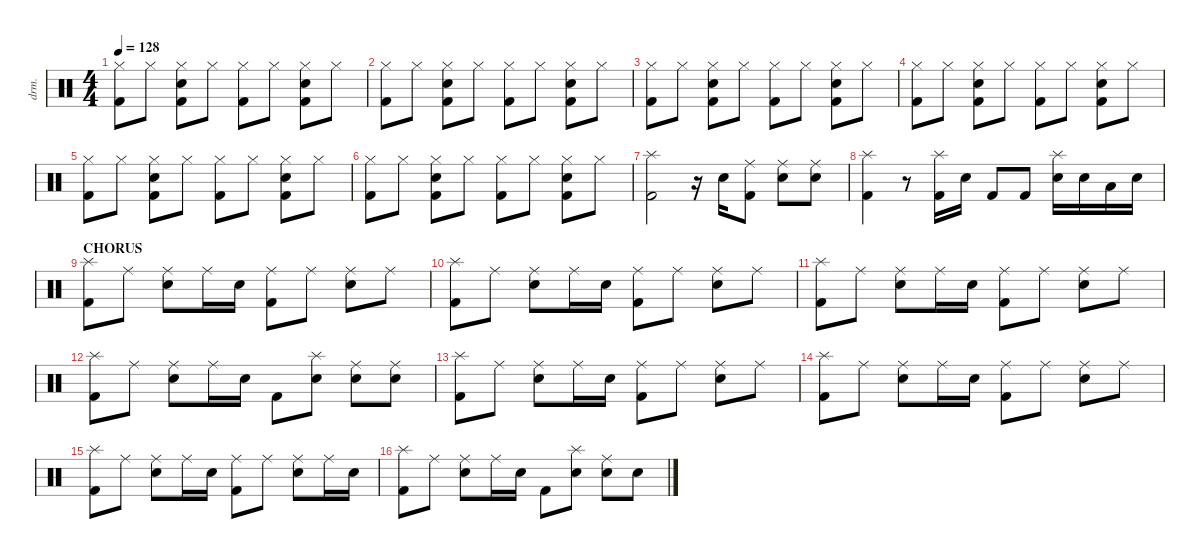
\defaultSystemsLayout 4
\hideDynamics
\bracketExtendMode nobrackets
\track ("Drumkit" "drm.") {instrument percussion}
\staff {score}
\articulation defaults
\ts (4 4)
\tempo 128
\clef neutral
\ks c
("Kick (hit) 2" "Hi-Hat (closed)").8{dy mf beam Down} "Hi-Hat (closed)".8{beam Down} ("Kick (hit) 2" "Snare (hit) 2" "Hi-Hat (closed)").8{beam Down} "Hi-Hat (closed)".8{beam Down} ("Kick (hit) 2" "Hi-Hat (closed)").8{beam Down} "Hi-Hat (closed)".8{beam Down} ("Kick (hit) 2" "Snare (hit) 2" "Hi-Hat (closed)").8{beam Down} "Hi-Hat (closed)".8{beam Down} |
("Kick (hit) 2" "Hi-Hat (closed)").8{beam Down} "Hi-Hat (closed)".8{beam Down} ("Kick (hit) 2" "Snare (hit) 2" "Hi-Hat (closed)").8{beam Down} "Hi-Hat (closed)".8{beam Down} ("Kick (hit) 2" "Hi-Hat (closed)").8{beam Down} "Hi-Hat (closed)".8{beam Down} ("Kick (hit) 2" "Snare (hit) 2" "Hi-Hat (closed)").8{beam Down} "Hi-Hat (closed)".8{beam Down} |
("Kick (hit) 2" "Hi-Hat (closed)").8{beam Down} "Hi-Hat (closed)".8{beam Down} ("Kick (hit) 2" "Snare (hit) 2" "Hi-Hat (closed)").8{beam Down} "Hi-Hat (closed)".8{beam Down} ("Kick (hit) 2" "Hi-Hat (closed)").8{beam Down} "Hi-Hat (closed)".8{beam Down} ("Kick (hit) 2" "Snare (hit) 2" "Hi-Hat (closed)").8{beam Down} "Hi-Hat (closed)".8{beam Down} |
("Kick (hit) 2" "Hi-Hat (closed)").8{beam Down} "Hi-Hat (closed)".8{beam Down} ("Kick (hit) 2" "Snare (hit) 2" "Hi-Hat (closed)").8{beam Down} "Hi-Hat (closed)".8{beam Down} ("Kick (hit) 2" "Hi-Hat (closed)").8{beam Down} "Hi-Hat (closed)".8{beam Down} ("Kick (hit) 2" "Snare (hit) 2" "Hi-Hat (closed)").8{beam Down} "Hi-Hat (closed)".8{beam Down} |
("Kick (hit) 2" "Hi-Hat (closed)").8{beam Down} "Hi-Hat (closed)".8{beam Down} ("Kick (hit) 2" "Snare (hit) 2" "Hi-Hat (closed)").8{beam Down} "Hi-Hat (closed)".8{beam Down} ("Kick (hit) 2" "Hi-Hat (closed)").8{beam Down} "Hi-Hat (closed)".8{beam Down} ("Kick (hit) 2" "Snare (hit) 2" "Hi-Hat (closed)").8{beam Down} "Hi-Hat (closed)".8{beam Down} |
("Kick (hit) 2" "Hi-Hat (closed)").8{beam Down} "Hi-Hat (closed)".8{beam Down} ("Kick (hit) 2" "Snare (hit) 2" "Hi-Hat (closed)").8{beam Down} "Hi-Hat (closed)".8{beam Down} ("Kick (hit) 2" "Hi-Hat (closed)").8{beam Down} "Hi-Hat (closed)".8{beam Down} ("Kick (hit) 2" "Snare (hit) 2" "Hi-Hat (closed)").8{beam Down} "Hi-Hat (closed)".8{beam Down} |
("Kick (hit) 2" "Splash (hit)").2{beam Down} r.16{beam Down} "Snare (hit) 2".16{beam Down} ("Ride (middle)" "Kick (hit) 2").8{beam Down} ("Ride (middle)" "Snare (hit) 2").8{beam Down} ("Ride (middle)" "Snare (hit) 2").8{beam Down} |
("Kick (hit) 2" "Splash (hit)").4{beam Down} r.8{beam Down} ("Kick (hit) 2" "Splash (hit)").16{beam Down} "Snare (hit) 2".16{beam Down} "Kick (hit) 2".8{beam Up} "Kick (hit) 2".8{beam Up} ("Snare (hit) 2" "Splash (hit)").16{beam Down} "Snare (hit) 2".16{beam Down} "Low Tom (hit)".16{beam Down} "Snare (hit) 2".16{beam Down} |
\section ("" "CHORUS")
("Kick (hit) 2" "Splash (hit)").8{beam Down} "Ride (middle)".8{beam Down} ("Ride (middle)" "Snare (hit) 2").8{beam Down} "Ride (middle)".16{beam Down} "Snare (hit) 2".16{beam Down} ("Ride (middle)" "Kick (hit) 2").8{beam Down} "Ride (middle)".8{beam Down} ("Ride (middle)" "Snare (hit) 2").8{beam Down} "Ride (middle)".8{beam Down} |
("Kick (hit) 2" "Splash (hit)").8{beam Down} "Ride (middle)".8{beam Down} ("Ride (middle)" "Snare (hit) 2").8{beam Down} "Ride (middle)".16{beam Down} "Snare (hit) 2".16{beam Down} ("Ride (middle)" "Kick (hit) 2").8{beam Down} "Ride (middle)".8{beam Down} ("Ride (middle)" "Snare (hit) 2").8{beam Down} "Ride (middle)".8{beam Down} |
("Kick (hit) 2" "Splash (hit)").8{beam Down} "Ride (middle)".8{beam Down} ("Ride (middle)" "Snare (hit) 2").8{beam Down} "Ride (middle)".16{beam Down} "Snare (hit) 2".16{beam Down} ("Ride (middle)" "Kick (hit) 2").8{beam Down} "Ride (middle)".8{beam Down} ("Ride (middle)" "Snare (hit) 2").8{beam Down} "Ride (middle)".8{beam Down} |
("Kick (hit) 2" "Splash (hit)").8{beam Down} "Ride (middle)".8{beam Down} ("Ride (middle)" "Snare (hit) 2").8{beam Down} "Ride (middle)".16{beam Down} "Snare (hit) 2".16{beam Down} "Kick (hit) 2".8{beam Down} ("Snare (hit) 2" "Splash (hit)").8{beam Down} ("Ride (middle)" "Snare (hit) 2").8{beam Down} ("Ride (middle)" "Snare (hit) 2").8{beam Down} |
("Kick (hit) 2" "Splash (hit)").8{beam Down} "Ride (middle)".8{beam Down} ("Ride (middle)" "Snare (hit) 2").8{beam Down} "Ride (middle)".16{beam Down} "Snare (hit) 2".16{beam Down} ("Ride (middle)" "Kick (hit) 2").8{beam Down} "Ride (middle)".8{beam Down} ("Ride (middle)" "Snare (hit) 2").8{beam Down} "Ride (middle)".8{beam Down} |
("Kick (hit) 2" "Splash (hit)").8{beam Down} "Ride (middle)".8{beam Down} ("Ride (middle)" "Snare (hit) 2").8{beam Down} "Ride (middle)".16{beam Down} "Snare (hit) 2".16{beam Down} ("Ride (middle)" "Kick (hit) 2").8{beam Down} "Ride (middle)".8{beam Down} ("Ride (middle)" "Snare (hit) 2").8{beam Down} "Ride (middle)".8{beam Down} |
("Kick (hit) 2" "Splash (hit)").8{beam Down} "Ride (middle)".8{beam Down} ("Ride (middle)" "Snare (hit) 2").8{beam Down} "Ride (middle)".16{beam Down} "Snare (hit) 2".16{beam Down} ("Ride (middle)" "Kick (hit) 2").8{beam Down} "Ride (middle)".8{beam Down} ("Ride (middle)" "Snare (hit) 2").8{beam Down} "Ride (middle)".16{beam Down} "Snare (hit) 2".16{beam Down} |
("Kick (hit) 2" "Splash (hit)").8{beam Down} "Ride (middle)".8{beam Down} ("Ride (middle)" "Snare (hit) 2").8{beam Down} "Ride (middle)".16{beam Down} "Snare (hit) 2".16{beam Down} "Kick (hit) 2".8{beam Down} ("Snare (hit) 2" "Splash (hit)").8{beam Down} ("Ride (middle)" "Snare (hit) 2").8{beam Down} "Snare (hit) 2".8{beam Down}
